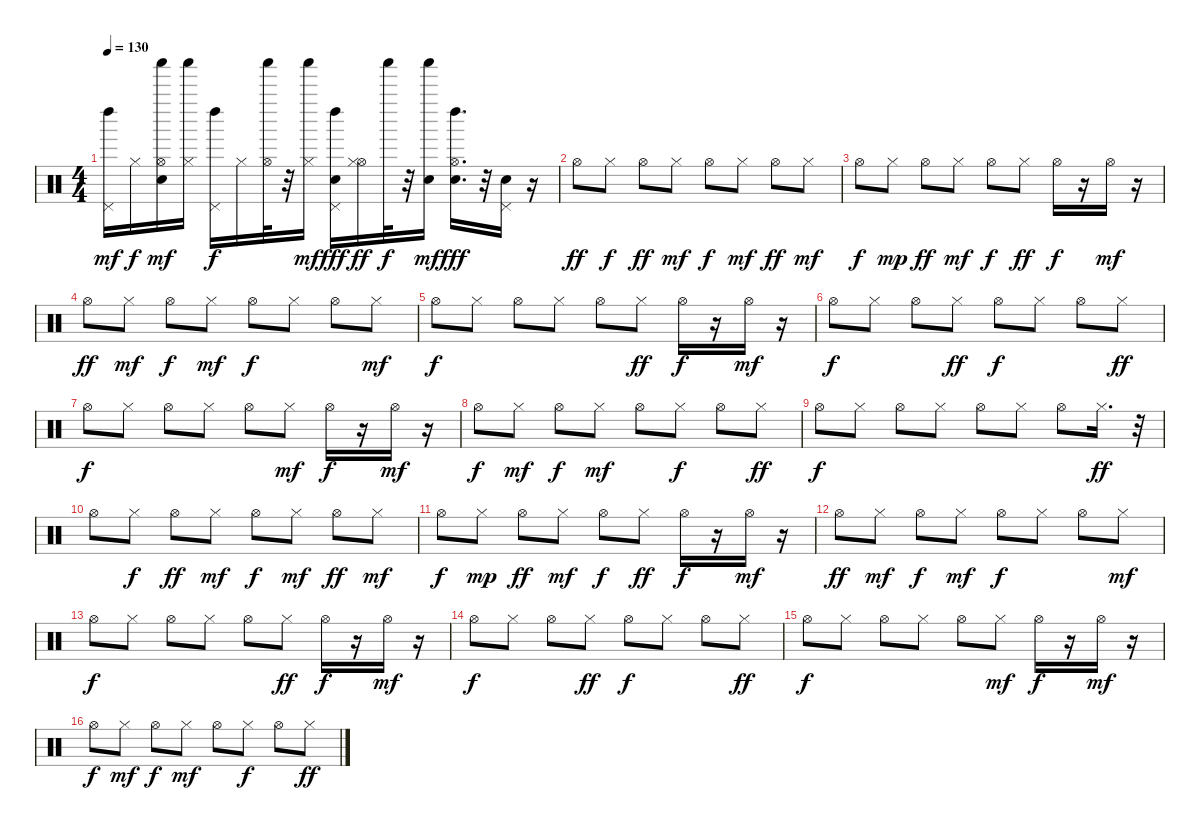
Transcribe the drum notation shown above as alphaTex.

\track "" {instrument percussion}
\staff {score}
\articulation defaults
\ts (4 4)
\tempo 130
\clef neutral
\ks c
("Left Maraca (hit)" "Pedal Hi-Hat (hit)").16{dy mf} "Hi-Hat (closed)".16{dy f} ("Snare (hit) 2" "Hi-Hat (open)" "Shaker (hit)").16{dy mf} ("Shaker (hit)" "Hi-Hat (closed)").16 ("Left Maraca (hit)" "Pedal Hi-Hat (hit)").16{dy f} "Hi-Hat (closed)".16 ("Shaker (hit)" "Hi-Hat (open)").32 r.32 ("Shaker (hit)" "Hi-Hat (closed)").16{dy mf} ("Snare (hit) 2" "Left Maraca (hit)" "Pedal Hi-Hat (hit)").16{dy fff} ("Hi-Hat (open)" "Hi-Hat (closed)").16{dy ff} "Shaker (hit)".32{dy f} r.32 ("Electric Snare (hit)" "Shaker (hit)").16{dy mf} ("Left Maraca (hit)" "Electric Snare (hit)" "Hi-Hat (open)").16{d dy fff} r.32 ("Electric Snare (hit)" "Pedal Hi-Hat (hit)").16 r.16 |
"Hi-Hat (open)".8{dy ff} "Hi-Hat (closed)".8{dy f} "Hi-Hat (open)".8{dy ff} "Hi-Hat (closed)".8{dy mf} "Hi-Hat (open)".8{dy f} "Hi-Hat (closed)".8{dy mf} "Hi-Hat (open)".8{dy ff} "Hi-Hat (closed)".8{dy mf} |
"Hi-Hat (open)".8{dy f} "Hi-Hat (closed)".8{dy mp} "Hi-Hat (open)".8{dy ff} "Hi-Hat (closed)".8{dy mf} "Hi-Hat (open)".8{dy f} "Hi-Hat (closed)".8{dy ff} "Hi-Hat (open)".16{dy f} r.16 "Hi-Hat (open)".16{dy mf} r.16 |
"Hi-Hat (open)".8{dy ff} "Hi-Hat (closed)".8{dy mf} "Hi-Hat (open)".8{dy f} "Hi-Hat (closed)".8{dy mf} "Hi-Hat (open)".8{dy f} "Hi-Hat (closed)".8 "Hi-Hat (open)".8 "Hi-Hat (closed)".8{dy mf} |
"Hi-Hat (open)".8{dy f} "Hi-Hat (closed)".8 "Hi-Hat (open)".8 "Hi-Hat (closed)".8 "Hi-Hat (open)".8 "Hi-Hat (closed)".8{dy ff} "Hi-Hat (open)".16{dy f} r.16 "Hi-Hat (open)".16{dy mf} r.16 |
"Hi-Hat (open)".8{dy f} "Hi-Hat (closed)".8 "Hi-Hat (open)".8 "Hi-Hat (closed)".8{dy ff} "Hi-Hat (open)".8{dy f} "Hi-Hat (closed)".8 "Hi-Hat (open)".8 "Hi-Hat (closed)".8{dy ff} |
"Hi-Hat (open)".8{dy f} "Hi-Hat (closed)".8 "Hi-Hat (open)".8 "Hi-Hat (closed)".8 "Hi-Hat (open)".8 "Hi-Hat (closed)".8{dy mf} "Hi-Hat (open)".16{dy f} r.16 "Hi-Hat (open)".16{dy mf} r.16 |
"Hi-Hat (open)".8{dy f} "Hi-Hat (closed)".8{dy mf} "Hi-Hat (open)".8{dy f} "Hi-Hat (closed)".8{dy mf} "Hi-Hat (open)".8 "Hi-Hat (closed)".8{dy f} "Hi-Hat (open)".8 "Hi-Hat (closed)".8{dy ff} |
"Hi-Hat (open)".8{dy f} "Hi-Hat (closed)".8 "Hi-Hat (open)".8 "Hi-Hat (closed)".8 "Hi-Hat (open)".8 "Hi-Hat (closed)".8 "Hi-Hat (open)".8 "Hi-Hat (closed)".16{d dy ff} r.32 |
"Hi-Hat (open)".8 "Hi-Hat (closed)".8{dy f} "Hi-Hat (open)".8{dy ff} "Hi-Hat (closed)".8{dy mf} "Hi-Hat (open)".8{dy f} "Hi-Hat (closed)".8{dy mf} "Hi-Hat (open)".8{dy ff} "Hi-Hat (closed)".8{dy mf} |
"Hi-Hat (open)".8{dy f} "Hi-Hat (closed)".8{dy mp} "Hi-Hat (open)".8{dy ff} "Hi-Hat (closed)".8{dy mf} "Hi-Hat (open)".8{dy f} "Hi-Hat (closed)".8{dy ff} "Hi-Hat (open)".16{dy f} r.16 "Hi-Hat (open)".16{dy mf} r.16 |
"Hi-Hat (open)".8{dy ff} "Hi-Hat (closed)".8{dy mf} "Hi-Hat (open)".8{dy f} "Hi-Hat (closed)".8{dy mf} "Hi-Hat (open)".8{dy f} "Hi-Hat (closed)".8 "Hi-Hat (open)".8 "Hi-Hat (closed)".8{dy mf} |
"Hi-Hat (open)".8{dy f} "Hi-Hat (closed)".8 "Hi-Hat (open)".8 "Hi-Hat (closed)".8 "Hi-Hat (open)".8 "Hi-Hat (closed)".8{dy ff} "Hi-Hat (open)".16{dy f} r.16 "Hi-Hat (open)".16{dy mf} r.16 |
"Hi-Hat (open)".8{dy f} "Hi-Hat (closed)".8 "Hi-Hat (open)".8 "Hi-Hat (closed)".8{dy ff} "Hi-Hat (open)".8{dy f} "Hi-Hat (closed)".8 "Hi-Hat (open)".8 "Hi-Hat (closed)".8{dy ff} |
"Hi-Hat (open)".8{dy f} "Hi-Hat (closed)".8 "Hi-Hat (open)".8 "Hi-Hat (closed)".8 "Hi-Hat (open)".8 "Hi-Hat (closed)".8{dy mf} "Hi-Hat (open)".16{dy f} r.16 "Hi-Hat (open)".16{dy mf} r.16 |
"Hi-Hat (open)".8{dy f} "Hi-Hat (closed)".8{dy mf} "Hi-Hat (open)".8{dy f} "Hi-Hat (closed)".8{dy mf} "Hi-Hat (open)".8 "Hi-Hat (closed)".8{dy f} "Hi-Hat (open)".8 "Hi-Hat (closed)".8{dy ff}
